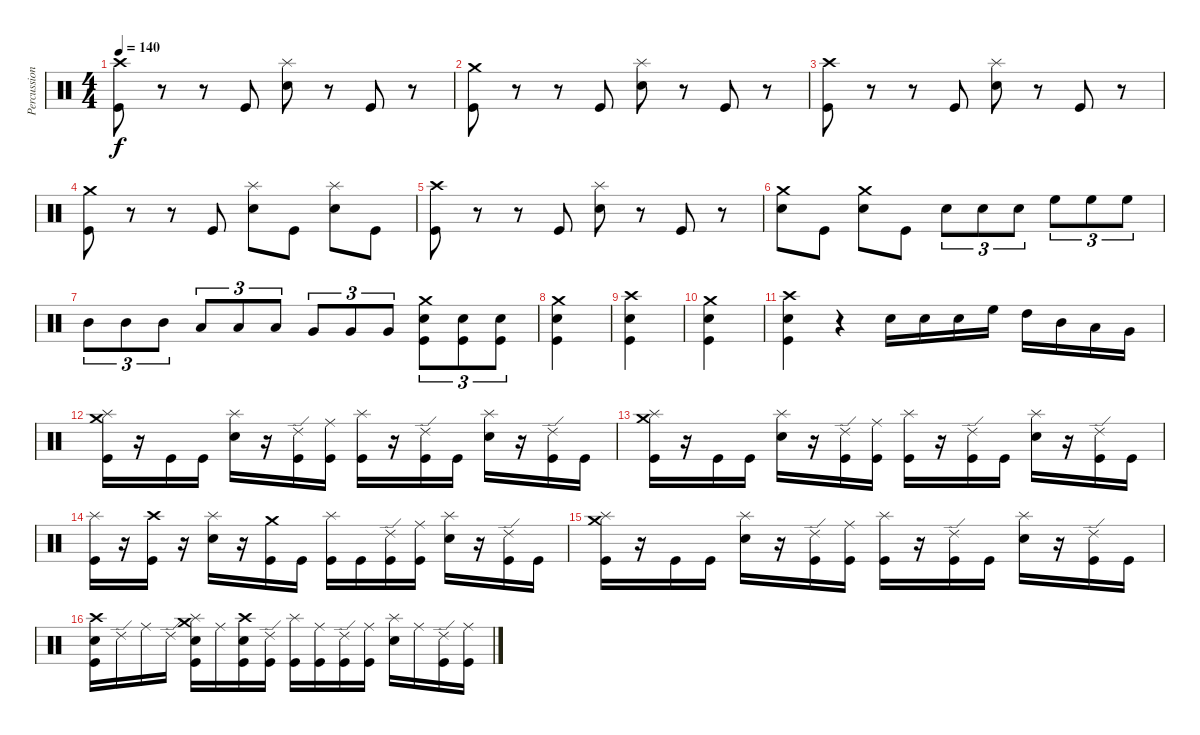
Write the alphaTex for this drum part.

\track ("Percussion" "Percussion") {instrument percussion}
\staff {score}
\articulation defaults
\ts (4 4)
\tempo 140
\clef neutral
\ks c
("Crash high (hit)" "Kick (hit)").8{dy f} r.8 r.8 "Kick (hit)".8 ("Splash (hit)" "Electric Snare (hit)").8 r.8 "Kick (hit)".8 r.8 |
("Crash medium (hit)" "Kick (hit)").8 r.8 r.8 "Kick (hit)".8 ("Splash (hit)" "Electric Snare (hit)").8 r.8 "Kick (hit)".8 r.8 |
("Crash high (hit)" "Kick (hit)").8 r.8 r.8 "Kick (hit)".8 ("Splash (hit)" "Electric Snare (hit)").8 r.8 "Kick (hit)".8 r.8 |
("Crash medium (hit)" "Kick (hit)").8 r.8 r.8 "Kick (hit)".8 ("Splash (hit)" "Electric Snare (hit)").8 "Kick (hit)".8 ("Splash (hit)" "Electric Snare (hit)").8 "Kick (hit)".8 |
("Crash high (hit)" "Kick (hit)").8 r.8 r.8 "Kick (hit)".8 ("Splash (hit)" "Electric Snare (hit)").8 r.8 "Kick (hit)".8 r.8 |
("Crash medium (hit)" "Electric Snare (hit)").8 "Kick (hit)".8 ("Crash medium (hit)" "Electric Snare (hit)").8 "Kick (hit)".8 "Electric Snare (hit)".8{tu (3 2)} "Electric Snare (hit)".8{tu (3 2)} "Electric Snare (hit)".8{tu (3 2)} "High Floor Tom (hit)".8{tu (3 2)} "High Floor Tom (hit)".8{tu (3 2)} "High Floor Tom (hit)".8{tu (3 2)} |
"Mid Tom (hit)".8{tu (3 2)} "Mid Tom (hit)".8{tu (3 2)} "Mid Tom (hit)".8{tu (3 2)} "Low Tom (hit)".8{tu (3 2)} "Low Tom (hit)".8{tu (3 2)} "Low Tom (hit)".8{tu (3 2)} "Very Low Tom (hit)".8{tu (3 2)} "Very Low Tom (hit)".8{tu (3 2)} "Very Low Tom (hit)".8{tu (3 2)} ("Crash medium (hit)" "Electric Snare (hit)" "Kick (hit)").8{tu (3 2)} ("Electric Snare (hit)" "Kick (hit)").8{tu (3 2)} ("Electric Snare (hit)" "Kick (hit)").8{tu (3 2)} |
("Crash medium (hit)" "Electric Snare (hit)" "Kick (hit)").4 |
("Crash high (hit)" "Electric Snare (hit)" "Kick (hit)").4 |
("Crash medium (hit)" "Electric Snare (hit)" "Kick (hit)").4 |
("Crash high (hit)" "Electric Snare (hit)" "Kick (hit)").4 r.4 "Electric Snare (hit)".16 "Electric Snare (hit)".16 "Electric Snare (hit)".16 "High Floor Tom (hit)".16 "High Tom (hit)".16 "Mid Tom (hit)".16 "Low Tom (hit)".16 "Very Low Tom (hit)".16 |
("Crash medium (hit)" "Splash (hit)" "Kick (hit)").16 r.16 "Kick (hit)".16 "Kick (hit)".16 ("Electric Snare (hit)" "Splash (hit)").16 r.16 ("Ride (edge) 2" "Kick (hit)").16 ("Ride (middle)" "Kick (hit)").16 ("Splash (hit)" "Kick (hit)").16 r.16 ("Ride (edge) 2" "Kick (hit)").16 "Kick (hit)".16 ("Electric Snare (hit)" "Splash (hit)").16 r.16 ("Ride (edge) 2" "Kick (hit)").16 "Kick (hit)".16 |
("Crash medium (hit)" "Splash (hit)" "Kick (hit)").16 r.16 "Kick (hit)".16 "Kick (hit)".16 ("Electric Snare (hit)" "Splash (hit)").16 r.16 ("Ride (edge) 2" "Kick (hit)").16 ("Ride (middle)" "Kick (hit)").16 ("Splash (hit)" "Kick (hit)").16 r.16 ("Ride (edge) 2" "Kick (hit)").16 "Kick (hit)".16 ("Electric Snare (hit)" "Splash (hit)").16 r.16 ("Ride (edge) 2" "Kick (hit)").16 "Kick (hit)".16 |
("Splash (hit)" "Kick (hit)").16 r.16 ("Crash high (hit)" "Kick (hit)").16 r.16 ("Electric Snare (hit)" "Splash (hit)").16 r.16 ("Crash medium (hit)" "Kick (hit)").16 "Kick (hit)".16 ("Splash (hit)" "Kick (hit)").16 "Kick (hit)".16 ("Ride (edge) 2" "Kick (hit)").16 ("Ride (middle)" "Kick (hit)").16 ("Electric Snare (hit)" "Splash (hit)").16 r.16 ("Ride (edge) 2" "Kick (hit)").16 "Kick (hit)".16 |
("Crash medium (hit)" "Splash (hit)" "Kick (hit)").16 r.16 "Kick (hit)".16 "Kick (hit)".16 ("Electric Snare (hit)" "Splash (hit)").16 r.16 ("Ride (edge) 2" "Kick (hit)").16 ("Ride (middle)" "Kick (hit)").16 ("Splash (hit)" "Kick (hit)").16 r.16 ("Ride (edge) 2" "Kick (hit)").16 "Kick (hit)".16 ("Electric Snare (hit)" "Splash (hit)").16 r.16 ("Ride (edge) 2" "Kick (hit)").16 "Kick (hit)".16 |
("Crash high (hit)" "Electric Snare (hit)" "Kick (hit)").16 "Ride (edge) 2".16 "Ride (middle)".16 "Ride (edge) 2".16 ("Crash medium (hit)" "Electric Snare (hit)" "Splash (hit)" "Kick (hit)").16 "Ride (middle)".16 ("Crash high (hit)" "Electric Snare (hit)" "Kick (hit)").16 ("Ride (edge) 2" "Kick (hit)").16 ("Splash (hit)" "Kick (hit)").16 ("Ride (middle)" "Kick (hit)").16 ("Ride (edge) 2" "Kick (hit)").16 ("Ride (middle)" "Kick (hit)").16 ("Electric Snare (hit)" "Splash (hit)").16 "Ride (middle)".16 ("Ride (edge) 2" "Kick (hit)").16 ("Ride (middle)" "Kick (hit)").16
